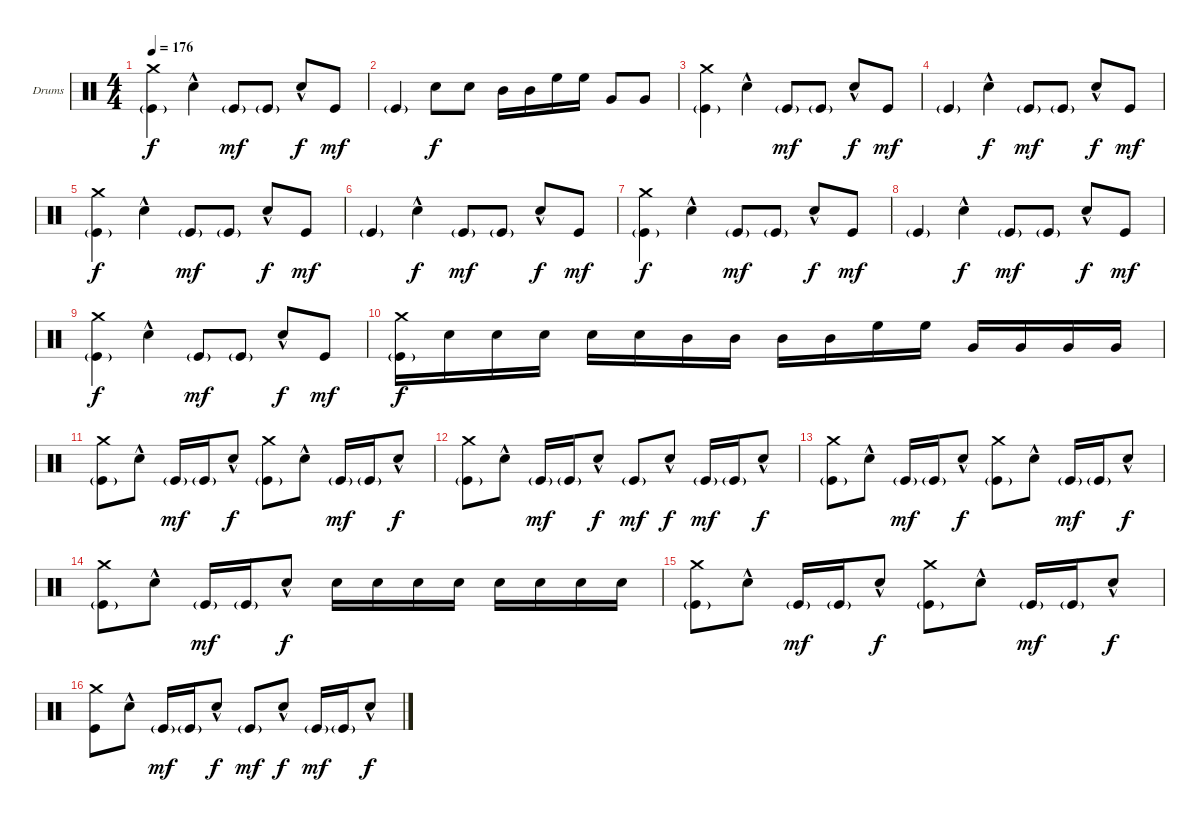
\defaultSystemsLayout 4
\bracketExtendMode groupsimilarinstruments
\firstSystemTrackNameOrientation horizontal
\otherSystemsTrackNameOrientation horizontal
\track ("Drums" "Drums") {instrument percussion}
\staff {score}
\articulation defaults
\ts (4 4)
\tempo 176
\clef neutral
\ks c
("Crash medium (hit)" "Kick (hit)"{g}).4{dy f} "Snare (hit) 2"{hac}.4 "Kick (hit)"{g}.8{dy mf} "Kick (hit)"{g}.8 "Snare (hit) 2"{hac}.8{dy f} "Kick (hit)".8{dy mf} |
"Kick (hit)"{g}.4 "Snare (hit) 2".8{dy f} "Snare (hit) 2".8 "Mid Tom (hit)".16 "Mid Tom (hit)".16 "High Floor Tom (hit)".16 "High Floor Tom (hit)".16 "Very Low Tom (hit)".8 "Very Low Tom (hit)".8 |
("Crash medium (hit)" "Kick (hit)"{g}).4 "Snare (hit) 2"{hac}.4 "Kick (hit)"{g}.8{dy mf} "Kick (hit)"{g}.8 "Snare (hit) 2"{hac}.8{dy f} "Kick (hit)".8{dy mf} |
"Kick (hit)"{g}.4 "Snare (hit) 2"{hac}.4{dy f} "Kick (hit)"{g}.8{dy mf} "Kick (hit)"{g}.8 "Snare (hit) 2"{hac}.8{dy f} "Kick (hit)".8{dy mf} |
("Crash medium (hit)" "Kick (hit)"{g}).4{dy f} "Snare (hit) 2"{hac}.4 "Kick (hit)"{g}.8{dy mf} "Kick (hit)"{g}.8 "Snare (hit) 2"{hac}.8{dy f} "Kick (hit)".8{dy mf} |
"Kick (hit)"{g}.4 "Snare (hit) 2"{hac}.4{dy f} "Kick (hit)"{g}.8{dy mf} "Kick (hit)"{g}.8 "Snare (hit) 2"{hac}.8{dy f} "Kick (hit)".8{dy mf} |
("Crash medium (hit)" "Kick (hit)"{g}).4{dy f} "Snare (hit) 2"{hac}.4 "Kick (hit)"{g}.8{dy mf} "Kick (hit)"{g}.8 "Snare (hit) 2"{hac}.8{dy f} "Kick (hit)".8{dy mf} |
"Kick (hit)"{g}.4 "Snare (hit) 2"{hac}.4{dy f} "Kick (hit)"{g}.8{dy mf} "Kick (hit)"{g}.8 "Snare (hit) 2"{hac}.8{dy f} "Kick (hit)".8{dy mf} |
("Crash medium (hit)" "Kick (hit)"{g}).4{dy f} "Snare (hit) 2"{hac}.4 "Kick (hit)"{g}.8{dy mf} "Kick (hit)"{g}.8 "Snare (hit) 2"{hac}.8{dy f} "Kick (hit)".8{dy mf} |
("Crash medium (hit)" "Kick (hit)"{g}).16{dy f} "Snare (hit) 2".16 "Snare (hit) 2".16 "Snare (hit) 2".16 "Snare (hit) 2".16 "Snare (hit) 2".16 "Mid Tom (hit)".16 "Mid Tom (hit)".16 "Mid Tom (hit)".16 "Mid Tom (hit)".16 "High Floor Tom (hit)".16 "High Floor Tom (hit)".16 "Very Low Tom (hit)".16 "Very Low Tom (hit)".16 "Very Low Tom (hit)".16 "Very Low Tom (hit)".16 |
("Crash medium (hit)" "Kick (hit)"{g}).8 "Snare (hit) 2"{hac}.8 "Kick (hit)"{g}.16{dy mf} "Kick (hit)"{g}.16 "Snare (hit) 2"{hac}.8{dy f} ("Crash medium (hit)" "Kick (hit)"{g}).8 "Snare (hit) 2"{hac}.8 "Kick (hit)"{g}.16{dy mf} "Kick (hit)"{g}.16 "Snare (hit) 2"{hac}.8{dy f} |
("Crash medium (hit)" "Kick (hit)"{g}).8 "Snare (hit) 2"{hac}.8 "Kick (hit)"{g}.16{dy mf} "Kick (hit)"{g}.16 "Snare (hit) 2"{hac}.8{dy f} "Kick (hit)"{g}.8{dy mf} "Snare (hit) 2"{hac}.8{dy f} "Kick (hit)"{g}.16{dy mf} "Kick (hit)"{g}.16 "Snare (hit) 2"{hac}.8{dy f} |
("Crash medium (hit)" "Kick (hit)"{g}).8 "Snare (hit) 2"{hac}.8 "Kick (hit)"{g}.16{dy mf} "Kick (hit)"{g}.16 "Snare (hit) 2"{hac}.8{dy f} ("Crash medium (hit)" "Kick (hit)"{g}).8 "Snare (hit) 2"{hac}.8 "Kick (hit)"{g}.16{dy mf} "Kick (hit)"{g}.16 "Snare (hit) 2"{hac}.8{dy f} |
("Crash medium (hit)" "Kick (hit)"{g}).8 "Snare (hit) 2"{hac}.8 "Kick (hit)"{g}.16{dy mf} "Kick (hit)"{g}.16 "Snare (hit) 2"{hac}.8{dy f} "Snare (hit) 2".16 "Snare (hit) 2".16 "Snare (hit) 2".16 "Snare (hit) 2".16 "Snare (hit) 2".16 "Snare (hit) 2".16 "Snare (hit) 2".16 "Snare (hit) 2".16 |
("Crash medium (hit)" "Kick (hit)"{g}).8 "Snare (hit) 2"{hac}.8 "Kick (hit)"{g}.16{dy mf} "Kick (hit)"{g}.16 "Snare (hit) 2"{hac}.8{dy f} ("Crash medium (hit)" "Kick (hit)"{g}).8 "Snare (hit) 2"{hac}.8 "Kick (hit)"{g}.16{dy mf} "Kick (hit)"{g}.16 "Snare (hit) 2"{hac}.8{dy f} |
("Crash medium (hit)" "Kick (hit)").8 "Snare (hit) 2"{hac}.8 "Kick (hit)"{g}.16{dy mf} "Kick (hit)"{g}.16 "Snare (hit) 2"{hac}.8{dy f} "Kick (hit)"{g}.8{dy mf} "Snare (hit) 2"{hac}.8{dy f} "Kick (hit)"{g}.16{dy mf} "Kick (hit)"{g}.16 "Snare (hit) 2"{hac}.8{dy f}
